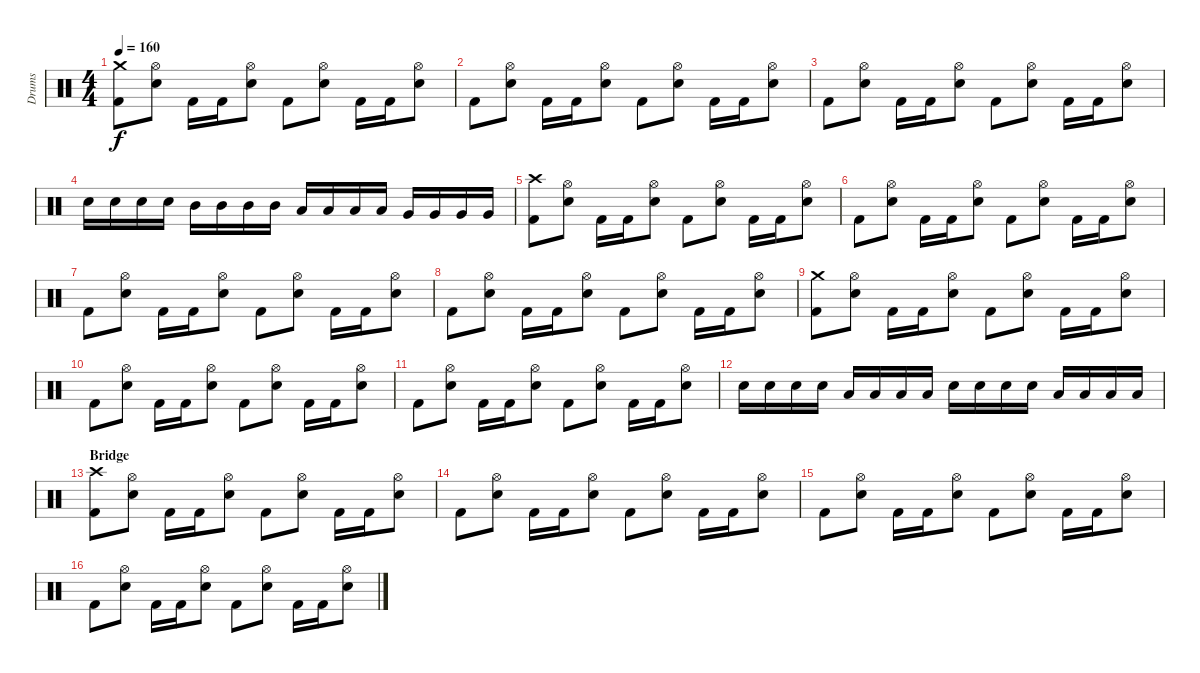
\track ("Drums" "Drums") {instrument percussion}
\staff {score}
\articulation defaults
\ts (4 4)
\tempo 160
\clef neutral
\ks c
("Crash medium (hit)" "Kick (hit) 2").8{dy f} ("Hi-Hat (open)" "Snare (hit) 2").8 "Kick (hit) 2".16 "Kick (hit) 2".16 ("Hi-Hat (open)" "Snare (hit) 2").8 "Kick (hit) 2".8 ("Hi-Hat (open)" "Snare (hit) 2").8 "Kick (hit) 2".16 "Kick (hit) 2".16 ("Hi-Hat (open)" "Snare (hit) 2").8 |
"Kick (hit) 2".8 ("Hi-Hat (open)" "Snare (hit) 2").8 "Kick (hit) 2".16 "Kick (hit) 2".16 ("Hi-Hat (open)" "Snare (hit) 2").8 "Kick (hit) 2".8 ("Hi-Hat (open)" "Snare (hit) 2").8 "Kick (hit) 2".16 "Kick (hit) 2".16 ("Hi-Hat (open)" "Snare (hit) 2").8 |
"Kick (hit) 2".8 ("Hi-Hat (open)" "Snare (hit) 2").8 "Kick (hit) 2".16 "Kick (hit) 2".16 ("Hi-Hat (open)" "Snare (hit) 2").8 "Kick (hit) 2".8 ("Hi-Hat (open)" "Snare (hit) 2").8 "Kick (hit) 2".16 "Kick (hit) 2".16 ("Hi-Hat (open)" "Snare (hit) 2").8 |
"Snare (hit) 2".16 "Snare (hit) 2".16 "Snare (hit) 2".16 "Snare (hit) 2".16 "Mid Tom (hit)".16 "Mid Tom (hit)".16 "Mid Tom (hit)".16 "Mid Tom (hit)".16 "Low Tom (hit)".16 "Low Tom (hit)".16 "Low Tom (hit)".16 "Low Tom (hit)".16 "Very Low Tom (hit)".16 "Very Low Tom (hit)".16 "Very Low Tom (hit)".16 "Very Low Tom (hit)".16 |
("Crash high (hit)" "Kick (hit) 2").8 ("Hi-Hat (open)" "Snare (hit) 2").8 "Kick (hit) 2".16 "Kick (hit) 2".16 ("Hi-Hat (open)" "Snare (hit) 2").8 "Kick (hit) 2".8 ("Hi-Hat (open)" "Snare (hit) 2").8 "Kick (hit) 2".16 "Kick (hit) 2".16 ("Hi-Hat (open)" "Snare (hit) 2").8 |
"Kick (hit) 2".8 ("Hi-Hat (open)" "Snare (hit) 2").8 "Kick (hit) 2".16 "Kick (hit) 2".16 ("Hi-Hat (open)" "Snare (hit) 2").8 "Kick (hit) 2".8 ("Hi-Hat (open)" "Snare (hit) 2").8 "Kick (hit) 2".16 "Kick (hit) 2".16 ("Hi-Hat (open)" "Snare (hit) 2").8 |
"Kick (hit) 2".8 ("Hi-Hat (open)" "Snare (hit) 2").8 "Kick (hit) 2".16 "Kick (hit) 2".16 ("Hi-Hat (open)" "Snare (hit) 2").8 "Kick (hit) 2".8 ("Hi-Hat (open)" "Snare (hit) 2").8 "Kick (hit) 2".16 "Kick (hit) 2".16 ("Hi-Hat (open)" "Snare (hit) 2").8 |
"Kick (hit) 2".8 ("Hi-Hat (open)" "Snare (hit) 2").8 "Kick (hit) 2".16 "Kick (hit) 2".16 ("Hi-Hat (open)" "Snare (hit) 2").8 "Kick (hit) 2".8 ("Hi-Hat (open)" "Snare (hit) 2").8 "Kick (hit) 2".16 "Kick (hit) 2".16 ("Hi-Hat (open)" "Snare (hit) 2").8 |
("Crash medium (hit)" "Kick (hit) 2").8 ("Hi-Hat (open)" "Snare (hit) 2").8 "Kick (hit) 2".16 "Kick (hit) 2".16 ("Hi-Hat (open)" "Snare (hit) 2").8 "Kick (hit) 2".8 ("Hi-Hat (open)" "Snare (hit) 2").8 "Kick (hit) 2".16 "Kick (hit) 2".16 ("Hi-Hat (open)" "Snare (hit) 2").8 |
"Kick (hit) 2".8 ("Hi-Hat (open)" "Snare (hit) 2").8 "Kick (hit) 2".16 "Kick (hit) 2".16 ("Hi-Hat (open)" "Snare (hit) 2").8 "Kick (hit) 2".8 ("Hi-Hat (open)" "Snare (hit) 2").8 "Kick (hit) 2".16 "Kick (hit) 2".16 ("Hi-Hat (open)" "Snare (hit) 2").8 |
"Kick (hit) 2".8 ("Hi-Hat (open)" "Snare (hit) 2").8 "Kick (hit) 2".16 "Kick (hit) 2".16 ("Hi-Hat (open)" "Snare (hit) 2").8 "Kick (hit) 2".8 ("Hi-Hat (open)" "Snare (hit) 2").8 "Kick (hit) 2".16 "Kick (hit) 2".16 ("Hi-Hat (open)" "Snare (hit) 2").8 |
"Snare (hit) 2".16 "Snare (hit) 2".16 "Snare (hit) 2".16 "Snare (hit) 2".16 "Low Tom (hit)".16 "Low Tom (hit)".16 "Low Tom (hit)".16 "Low Tom (hit)".16 "Snare (hit) 2".16 "Snare (hit) 2".16 "Snare (hit) 2".16 "Snare (hit) 2".16 "Low Tom (hit)".16 "Low Tom (hit)".16 "Low Tom (hit)".16 "Low Tom (hit)".16 |
\section ("" "Bridge")
("Crash high (hit)" "Kick (hit) 2").8 ("Hi-Hat (open)" "Snare (hit) 2").8 "Kick (hit) 2".16 "Kick (hit) 2".16 ("Hi-Hat (open)" "Snare (hit) 2").8 "Kick (hit) 2".8 ("Hi-Hat (open)" "Snare (hit) 2").8 "Kick (hit) 2".16 "Kick (hit) 2".16 ("Hi-Hat (open)" "Snare (hit) 2").8 |
"Kick (hit) 2".8 ("Hi-Hat (open)" "Snare (hit) 2").8 "Kick (hit) 2".16 "Kick (hit) 2".16 ("Hi-Hat (open)" "Snare (hit) 2").8 "Kick (hit) 2".8 ("Hi-Hat (open)" "Snare (hit) 2").8 "Kick (hit) 2".16 "Kick (hit) 2".16 ("Hi-Hat (open)" "Snare (hit) 2").8 |
"Kick (hit) 2".8 ("Hi-Hat (open)" "Snare (hit) 2").8 "Kick (hit) 2".16 "Kick (hit) 2".16 ("Hi-Hat (open)" "Snare (hit) 2").8 "Kick (hit) 2".8 ("Hi-Hat (open)" "Snare (hit) 2").8 "Kick (hit) 2".16 "Kick (hit) 2".16 ("Hi-Hat (open)" "Snare (hit) 2").8 |
"Kick (hit) 2".8 ("Hi-Hat (open)" "Snare (hit) 2").8 "Kick (hit) 2".16 "Kick (hit) 2".16 ("Hi-Hat (open)" "Snare (hit) 2").8 "Kick (hit) 2".8 ("Hi-Hat (open)" "Snare (hit) 2").8 "Kick (hit) 2".16 "Kick (hit) 2".16 ("Hi-Hat (open)" "Snare (hit) 2").8
